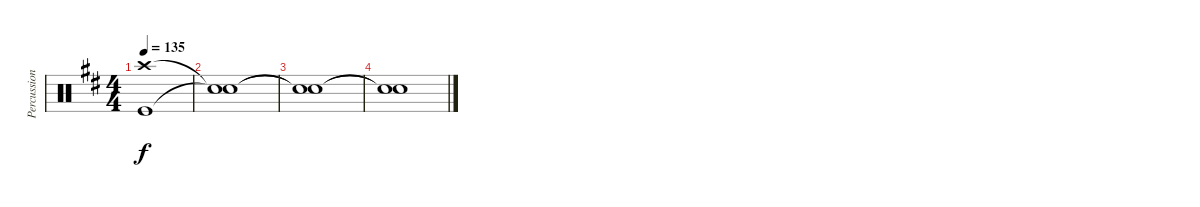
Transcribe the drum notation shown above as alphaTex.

\track ("Percussion" "Percussion") {instrument percussion}
\staff {score}
\articulation defaults
\ts (4 4)
\tempo 135
\clef neutral
\ks d
("Crash high (hit)" "Kick (hit)").1{dy f} |
("Snare (hit)"{t} "Snare (hit)"{t}).1 |
("Snare (hit)"{t} "Snare (hit)"{t}).1 |
("Snare (hit)"{t} "Snare (hit)"{t}).1
